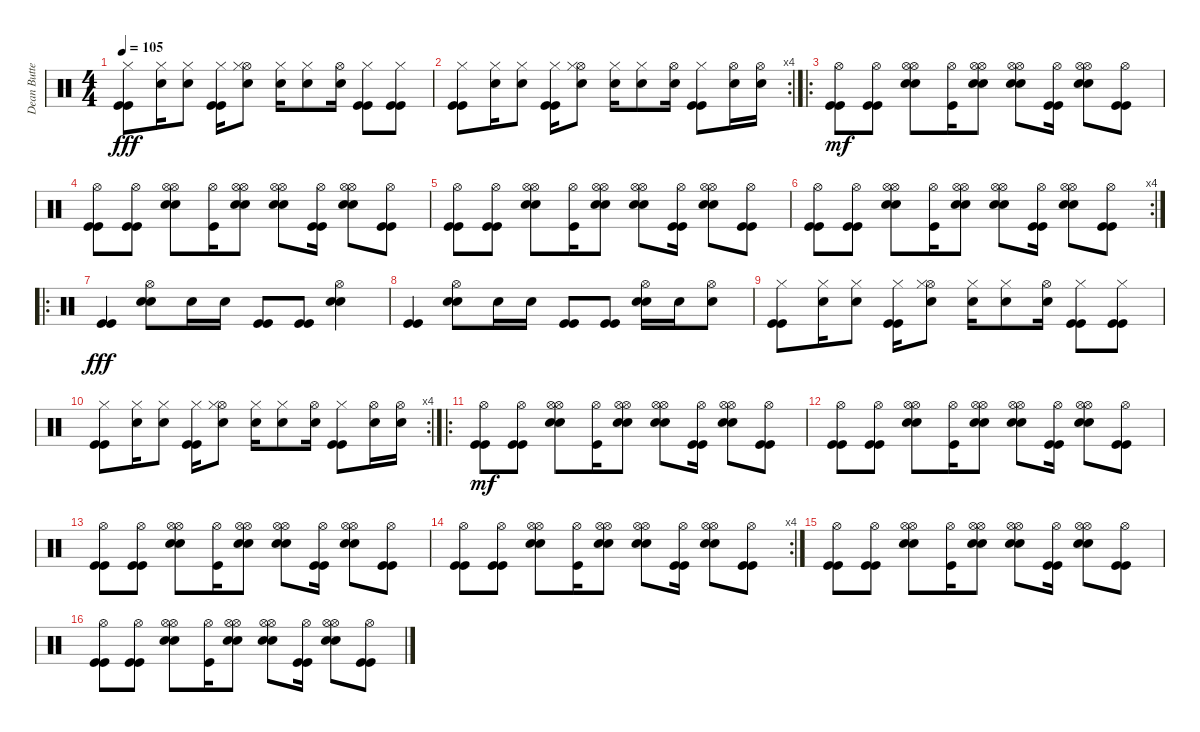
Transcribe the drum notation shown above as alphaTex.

\track ("Dean Butterworth" "Dean Butte") {instrument percussion}
\staff {score}
\articulation defaults
\ts (4 4)
\tempo 105
\clef neutral
\ks c
("Kick (hit)" "Kick (hit)" "Hi-Hat (closed)").8{dy fff} ("Electric Snare (hit)" "Hi-Hat (closed)").16 ("Electric Snare (hit)" "Hi-Hat (closed)").8 ("Kick (hit)" "Kick (hit)" "Hi-Hat (closed)").16 ("Snare (hit) 2" "Hi-Hat (open)" "Hi-Hat (closed)").8 ("Electric Snare (hit)" "Hi-Hat (closed)").16 ("Electric Snare (hit)" "Hi-Hat (closed)").8 ("Snare (hit) 2" "Hi-Hat (open)").16 ("Kick (hit)" "Kick (hit)" "Hi-Hat (closed)").8 ("Kick (hit)" "Kick (hit)" "Hi-Hat (closed)").8 |
\rc 4
("Kick (hit)" "Kick (hit)" "Hi-Hat (closed)").8 ("Electric Snare (hit)" "Hi-Hat (closed)").16 ("Electric Snare (hit)" "Hi-Hat (closed)").8 ("Kick (hit)" "Kick (hit)" "Hi-Hat (closed)").16 ("Snare (hit) 2" "Hi-Hat (open)" "Hi-Hat (closed)").8 ("Electric Snare (hit)" "Hi-Hat (closed)").16 ("Electric Snare (hit)" "Hi-Hat (closed)").8 ("Snare (hit) 2" "Hi-Hat (open)").16 ("Kick (hit)" "Kick (hit)" "Hi-Hat (closed)").8 ("Snare (hit) 2" "Hi-Hat (open)").16 ("Snare (hit) 2" "Hi-Hat (open)").16 |
\ro
("Kick (hit)" "Kick (hit)" "Hi-Hat (open)").8{dy mf} ("Kick (hit)" "Kick (hit)" "Hi-Hat (open)").8 ("Electric Snare (hit)" "Snare (hit) 2" "Hi-Hat (open)" "Hi-Hat (open)").8 ("Kick (hit)" "Hi-Hat (open)").16 ("Electric Snare (hit)" "Snare (hit) 2" "Hi-Hat (open)" "Hi-Hat (open)").8 ("Electric Snare (hit)" "Snare (hit) 2" "Hi-Hat (open)" "Hi-Hat (open)").8 ("Kick (hit)" "Kick (hit)" "Hi-Hat (open)").16 ("Electric Snare (hit)" "Snare (hit) 2" "Hi-Hat (open)" "Hi-Hat (open)").8 ("Kick (hit)" "Kick (hit)" "Hi-Hat (open)").8 |
("Kick (hit)" "Kick (hit)" "Hi-Hat (open)").8 ("Kick (hit)" "Kick (hit)" "Hi-Hat (open)").8 ("Electric Snare (hit)" "Snare (hit) 2" "Hi-Hat (open)" "Hi-Hat (open)").8 ("Kick (hit)" "Hi-Hat (open)").16 ("Electric Snare (hit)" "Snare (hit) 2" "Hi-Hat (open)" "Hi-Hat (open)").8 ("Electric Snare (hit)" "Snare (hit) 2" "Hi-Hat (open)" "Hi-Hat (open)").8 ("Kick (hit)" "Kick (hit)" "Hi-Hat (open)").16 ("Electric Snare (hit)" "Snare (hit) 2" "Hi-Hat (open)" "Hi-Hat (open)").8 ("Kick (hit)" "Kick (hit)" "Hi-Hat (open)").8 |
("Kick (hit)" "Kick (hit)" "Hi-Hat (open)").8 ("Kick (hit)" "Kick (hit)" "Hi-Hat (open)").8 ("Electric Snare (hit)" "Snare (hit) 2" "Hi-Hat (open)" "Hi-Hat (open)").8 ("Kick (hit)" "Hi-Hat (open)").16 ("Electric Snare (hit)" "Snare (hit) 2" "Hi-Hat (open)" "Hi-Hat (open)").8 ("Electric Snare (hit)" "Snare (hit) 2" "Hi-Hat (open)" "Hi-Hat (open)").8 ("Kick (hit)" "Kick (hit)" "Hi-Hat (open)").16 ("Electric Snare (hit)" "Snare (hit) 2" "Hi-Hat (open)" "Hi-Hat (open)").8 ("Kick (hit)" "Kick (hit)" "Hi-Hat (open)").8 |
\rc 4
("Kick (hit)" "Kick (hit)" "Hi-Hat (open)").8 ("Kick (hit)" "Kick (hit)" "Hi-Hat (open)").8 ("Electric Snare (hit)" "Snare (hit) 2" "Hi-Hat (open)" "Hi-Hat (open)").8 ("Kick (hit)" "Hi-Hat (open)").16 ("Electric Snare (hit)" "Snare (hit) 2" "Hi-Hat (open)" "Hi-Hat (open)").8 ("Electric Snare (hit)" "Snare (hit) 2" "Hi-Hat (open)" "Hi-Hat (open)").8 ("Kick (hit)" "Kick (hit)" "Hi-Hat (open)").16 ("Electric Snare (hit)" "Snare (hit) 2" "Hi-Hat (open)" "Hi-Hat (open)").8 ("Kick (hit)" "Kick (hit)" "Hi-Hat (open)").8 |
\ro
("Kick (hit)" "Kick (hit)").4{dy fff} ("Electric Snare (hit)" "Snare (hit) 2" "Hi-Hat (open)").8 "Snare (hit) 2".16 "Snare (hit) 2".16 ("Kick (hit)" "Kick (hit)").8 ("Kick (hit)" "Kick (hit)").8 ("Electric Snare (hit)" "Snare (hit) 2" "Hi-Hat (open)").4 |
("Kick (hit)" "Kick (hit)").4 ("Electric Snare (hit)" "Snare (hit) 2" "Hi-Hat (open)").8 "Snare (hit) 2".16 "Snare (hit) 2".16 ("Kick (hit)" "Kick (hit)").8 ("Kick (hit)" "Kick (hit)").8 ("Electric Snare (hit)" "Snare (hit) 2" "Hi-Hat (open)").16 "Snare (hit) 2".16 ("Snare (hit) 2" "Hi-Hat (open)").8 |
("Kick (hit)" "Kick (hit)" "Hi-Hat (closed)").8 ("Electric Snare (hit)" "Hi-Hat (closed)").16 ("Electric Snare (hit)" "Hi-Hat (closed)").8 ("Kick (hit)" "Kick (hit)" "Hi-Hat (closed)").16 ("Snare (hit) 2" "Hi-Hat (open)" "Hi-Hat (closed)").8 ("Electric Snare (hit)" "Hi-Hat (closed)").16 ("Electric Snare (hit)" "Hi-Hat (closed)").8 ("Snare (hit) 2" "Hi-Hat (open)").16 ("Kick (hit)" "Kick (hit)" "Hi-Hat (closed)").8 ("Kick (hit)" "Kick (hit)" "Hi-Hat (closed)").8 |
\rc 4
("Kick (hit)" "Kick (hit)" "Hi-Hat (closed)").8 ("Electric Snare (hit)" "Hi-Hat (closed)").16 ("Electric Snare (hit)" "Hi-Hat (closed)").8 ("Kick (hit)" "Kick (hit)" "Hi-Hat (closed)").16 ("Snare (hit) 2" "Hi-Hat (open)" "Hi-Hat (closed)").8 ("Electric Snare (hit)" "Hi-Hat (closed)").16 ("Electric Snare (hit)" "Hi-Hat (closed)").8 ("Snare (hit) 2" "Hi-Hat (open)").16 ("Kick (hit)" "Kick (hit)" "Hi-Hat (closed)").8 ("Snare (hit) 2" "Hi-Hat (open)").16 ("Snare (hit) 2" "Hi-Hat (open)").16 |
\ro
("Kick (hit)" "Kick (hit)" "Hi-Hat (open)").8{dy mf} ("Kick (hit)" "Kick (hit)" "Hi-Hat (open)").8 ("Electric Snare (hit)" "Snare (hit) 2" "Hi-Hat (open)" "Hi-Hat (open)").8 ("Kick (hit)" "Hi-Hat (open)").16 ("Electric Snare (hit)" "Snare (hit) 2" "Hi-Hat (open)" "Hi-Hat (open)").8 ("Electric Snare (hit)" "Snare (hit) 2" "Hi-Hat (open)" "Hi-Hat (open)").8 ("Kick (hit)" "Kick (hit)" "Hi-Hat (open)").16 ("Electric Snare (hit)" "Snare (hit) 2" "Hi-Hat (open)" "Hi-Hat (open)").8 ("Kick (hit)" "Kick (hit)" "Hi-Hat (open)").8 |
("Kick (hit)" "Kick (hit)" "Hi-Hat (open)").8 ("Kick (hit)" "Kick (hit)" "Hi-Hat (open)").8 ("Electric Snare (hit)" "Snare (hit) 2" "Hi-Hat (open)" "Hi-Hat (open)").8 ("Kick (hit)" "Hi-Hat (open)").16 ("Electric Snare (hit)" "Snare (hit) 2" "Hi-Hat (open)" "Hi-Hat (open)").8 ("Electric Snare (hit)" "Snare (hit) 2" "Hi-Hat (open)" "Hi-Hat (open)").8 ("Kick (hit)" "Kick (hit)" "Hi-Hat (open)").16 ("Electric Snare (hit)" "Snare (hit) 2" "Hi-Hat (open)" "Hi-Hat (open)").8 ("Kick (hit)" "Kick (hit)" "Hi-Hat (open)").8 |
("Kick (hit)" "Kick (hit)" "Hi-Hat (open)").8 ("Kick (hit)" "Kick (hit)" "Hi-Hat (open)").8 ("Electric Snare (hit)" "Snare (hit) 2" "Hi-Hat (open)" "Hi-Hat (open)").8 ("Kick (hit)" "Hi-Hat (open)").16 ("Electric Snare (hit)" "Snare (hit) 2" "Hi-Hat (open)" "Hi-Hat (open)").8 ("Electric Snare (hit)" "Snare (hit) 2" "Hi-Hat (open)" "Hi-Hat (open)").8 ("Kick (hit)" "Kick (hit)" "Hi-Hat (open)").16 ("Electric Snare (hit)" "Snare (hit) 2" "Hi-Hat (open)" "Hi-Hat (open)").8 ("Kick (hit)" "Kick (hit)" "Hi-Hat (open)").8 |
\rc 4
("Kick (hit)" "Kick (hit)" "Hi-Hat (open)").8 ("Kick (hit)" "Kick (hit)" "Hi-Hat (open)").8 ("Electric Snare (hit)" "Snare (hit) 2" "Hi-Hat (open)" "Hi-Hat (open)").8 ("Kick (hit)" "Hi-Hat (open)").16 ("Electric Snare (hit)" "Snare (hit) 2" "Hi-Hat (open)" "Hi-Hat (open)").8 ("Electric Snare (hit)" "Snare (hit) 2" "Hi-Hat (open)" "Hi-Hat (open)").8 ("Kick (hit)" "Kick (hit)" "Hi-Hat (open)").16 ("Electric Snare (hit)" "Snare (hit) 2" "Hi-Hat (open)" "Hi-Hat (open)").8 ("Kick (hit)" "Kick (hit)" "Hi-Hat (open)").8 |
("Kick (hit)" "Kick (hit)" "Hi-Hat (open)").8 ("Kick (hit)" "Kick (hit)" "Hi-Hat (open)").8 ("Electric Snare (hit)" "Snare (hit) 2" "Hi-Hat (open)" "Hi-Hat (open)").8 ("Kick (hit)" "Hi-Hat (open)").16 ("Electric Snare (hit)" "Snare (hit) 2" "Hi-Hat (open)" "Hi-Hat (open)").8 ("Electric Snare (hit)" "Snare (hit) 2" "Hi-Hat (open)" "Hi-Hat (open)").8 ("Kick (hit)" "Kick (hit)" "Hi-Hat (open)").16 ("Electric Snare (hit)" "Snare (hit) 2" "Hi-Hat (open)" "Hi-Hat (open)").8 ("Kick (hit)" "Kick (hit)" "Hi-Hat (open)").8 |
("Kick (hit)" "Kick (hit)" "Hi-Hat (open)").8 ("Kick (hit)" "Kick (hit)" "Hi-Hat (open)").8 ("Electric Snare (hit)" "Snare (hit) 2" "Hi-Hat (open)" "Hi-Hat (open)").8 ("Kick (hit)" "Hi-Hat (open)").16 ("Electric Snare (hit)" "Snare (hit) 2" "Hi-Hat (open)" "Hi-Hat (open)").8 ("Electric Snare (hit)" "Snare (hit) 2" "Hi-Hat (open)" "Hi-Hat (open)").8 ("Kick (hit)" "Kick (hit)" "Hi-Hat (open)").16 ("Electric Snare (hit)" "Snare (hit) 2" "Hi-Hat (open)" "Hi-Hat (open)").8 ("Kick (hit)" "Kick (hit)" "Hi-Hat (open)").8
